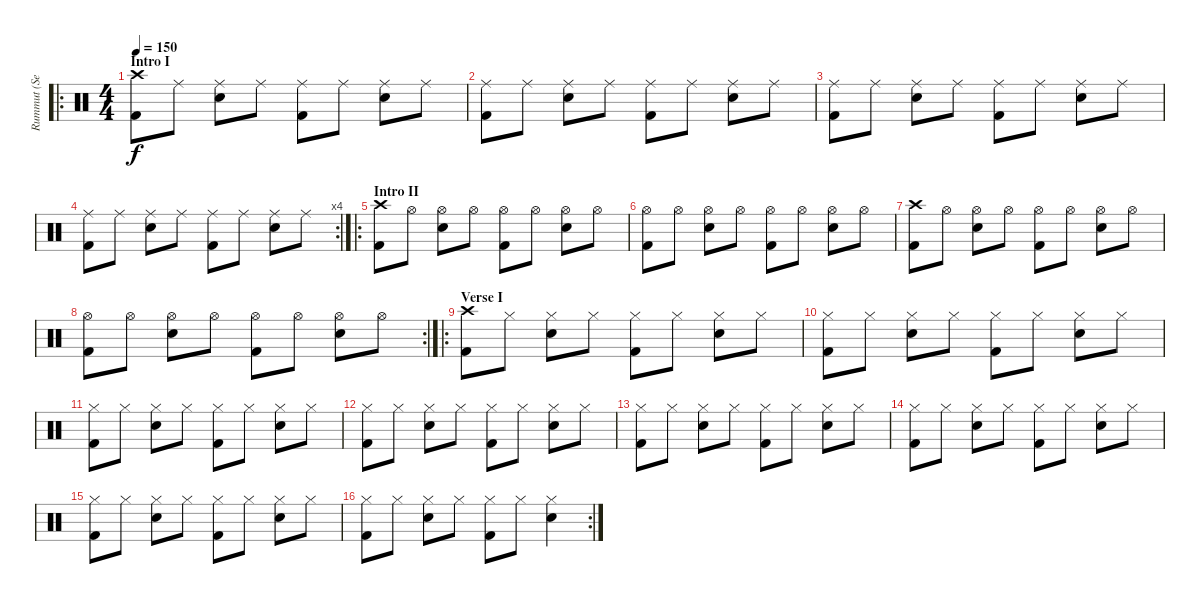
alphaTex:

\track ("Rummut (Seppo Pohjolainen)" "Rummut (Se") {instrument percussion}
\staff {score}
\articulation defaults
\ro
\ts (4 4)
\section ("" "Intro I")
\tempo 150
\clef neutral
\ks c
("Crash high (hit)" "Kick (hit) 2").8{dy f} "Ride (middle)".8 ("Ride (middle)" "Snare (hit) 2").8 "Ride (middle)".8 ("Ride (middle)" "Kick (hit) 2").8 "Ride (middle)".8 ("Ride (middle)" "Snare (hit) 2").8 "Ride (middle)".8 |
("Ride (middle)" "Kick (hit) 2").8 "Ride (middle)".8 ("Ride (middle)" "Snare (hit) 2").8 "Ride (middle)".8 ("Ride (middle)" "Kick (hit) 2").8 "Ride (middle)".8 ("Ride (middle)" "Snare (hit) 2").8 "Ride (middle)".8 |
("Ride (middle)" "Kick (hit) 2").8 "Ride (middle)".8 ("Ride (middle)" "Snare (hit) 2").8 "Ride (middle)".8 ("Ride (middle)" "Kick (hit) 2").8 "Ride (middle)".8 ("Ride (middle)" "Snare (hit) 2").8 "Ride (middle)".8 |
\rc 4
("Ride (middle)" "Kick (hit) 2").8 "Ride (middle)".8 ("Ride (middle)" "Snare (hit) 2").8 "Ride (middle)".8 ("Ride (middle)" "Kick (hit) 2").8 "Ride (middle)".8 ("Ride (middle)" "Snare (hit) 2").8 "Ride (middle)".8 |
\ro
\section ("" "Intro II")
("Crash high (hit)" "Kick (hit) 2").8 "Hi-Hat (open)".8 ("Hi-Hat (open)" "Snare (hit) 2").8 "Hi-Hat (open)".8 ("Hi-Hat (open)" "Kick (hit) 2").8 "Hi-Hat (open)".8 ("Hi-Hat (open)" "Snare (hit) 2").8 "Hi-Hat (open)".8 |
("Hi-Hat (open)" "Kick (hit) 2").8 "Hi-Hat (open)".8 ("Hi-Hat (open)" "Snare (hit) 2").8 "Hi-Hat (open)".8 ("Hi-Hat (open)" "Kick (hit) 2").8 "Hi-Hat (open)".8 ("Hi-Hat (open)" "Snare (hit) 2").8 "Hi-Hat (open)".8 |
("Crash high (hit)" "Kick (hit) 2").8 "Hi-Hat (open)".8 ("Hi-Hat (open)" "Snare (hit) 2").8 "Hi-Hat (open)".8 ("Hi-Hat (open)" "Kick (hit) 2").8 "Hi-Hat (open)".8 ("Hi-Hat (open)" "Snare (hit) 2").8 "Hi-Hat (open)".8 |
\rc 2
("Hi-Hat (open)" "Kick (hit) 2").8 "Hi-Hat (open)".8 ("Hi-Hat (open)" "Snare (hit) 2").8 "Hi-Hat (open)".8 ("Hi-Hat (open)" "Kick (hit) 2").8 "Hi-Hat (open)".8 ("Hi-Hat (open)" "Snare (hit) 2").8 "Hi-Hat (open)".8 |
\ro
\section ("" "Verse I")
("Crash high (hit)" "Kick (hit) 2").8 "Hi-Hat (closed)".8 ("Hi-Hat (closed)" "Snare (hit) 2").8 "Hi-Hat (closed)".8 ("Hi-Hat (closed)" "Kick (hit) 2").8 "Hi-Hat (closed)".8 ("Hi-Hat (closed)" "Snare (hit) 2").8 "Hi-Hat (closed)".8 |
("Hi-Hat (closed)" "Kick (hit) 2").8 "Hi-Hat (closed)".8 ("Hi-Hat (closed)" "Snare (hit) 2").8 "Hi-Hat (closed)".8 ("Hi-Hat (closed)" "Kick (hit) 2").8 "Hi-Hat (closed)".8 ("Hi-Hat (closed)" "Snare (hit) 2").8 "Hi-Hat (closed)".8 |
("Hi-Hat (closed)" "Kick (hit) 2").8 "Hi-Hat (closed)".8 ("Hi-Hat (closed)" "Snare (hit) 2").8 "Hi-Hat (closed)".8 ("Hi-Hat (closed)" "Kick (hit) 2").8 "Hi-Hat (closed)".8 ("Hi-Hat (closed)" "Snare (hit) 2").8 "Hi-Hat (closed)".8 |
("Hi-Hat (closed)" "Kick (hit) 2").8 "Hi-Hat (closed)".8 ("Hi-Hat (closed)" "Snare (hit) 2").8 "Hi-Hat (closed)".8 ("Hi-Hat (closed)" "Kick (hit) 2").8 "Hi-Hat (closed)".8 ("Hi-Hat (closed)" "Snare (hit) 2").8 "Hi-Hat (closed)".8 |
("Hi-Hat (closed)" "Kick (hit) 2").8 "Hi-Hat (closed)".8 ("Hi-Hat (closed)" "Snare (hit) 2").8 "Hi-Hat (closed)".8 ("Hi-Hat (closed)" "Kick (hit) 2").8 "Hi-Hat (closed)".8 ("Hi-Hat (closed)" "Snare (hit) 2").8 "Hi-Hat (closed)".8 |
("Hi-Hat (closed)" "Kick (hit) 2").8 "Hi-Hat (closed)".8 ("Hi-Hat (closed)" "Snare (hit) 2").8 "Hi-Hat (closed)".8 ("Hi-Hat (closed)" "Kick (hit) 2").8 "Hi-Hat (closed)".8 ("Hi-Hat (closed)" "Snare (hit) 2").8 "Hi-Hat (closed)".8 |
("Hi-Hat (closed)" "Kick (hit) 2").8 "Hi-Hat (closed)".8 ("Hi-Hat (closed)" "Snare (hit) 2").8 "Hi-Hat (closed)".8 ("Hi-Hat (closed)" "Kick (hit) 2").8 "Hi-Hat (closed)".8 ("Hi-Hat (closed)" "Snare (hit) 2").8 "Hi-Hat (closed)".8 |
\rc 2
("Hi-Hat (closed)" "Kick (hit) 2").8 "Hi-Hat (closed)".8 ("Hi-Hat (closed)" "Snare (hit) 2").8 "Hi-Hat (closed)".8 ("Hi-Hat (closed)" "Kick (hit) 2").8 "Hi-Hat (closed)".8 ("Hi-Hat (closed)" "Snare (hit) 2").4
